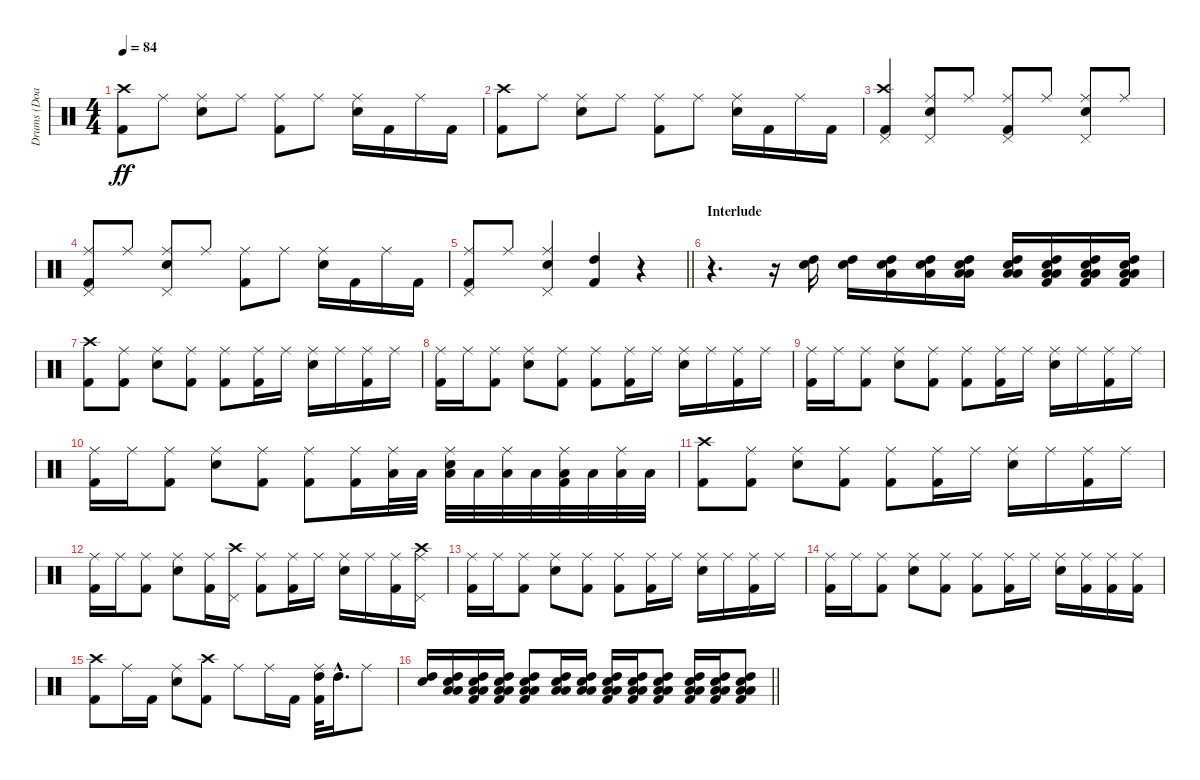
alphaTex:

\track ("Drums (Doane Perry)" "Drums (Doa") {instrument percussion}
\staff {score}
\articulation defaults
\ts (4 4)
\tempo 84
\clef neutral
\ks c
("Kick (hit) 2" "Crash high (hit)").8{dy ff} "Ride (middle)".8 ("Snare (hit) 2" "Ride (middle)").8 "Ride (middle)".8 ("Kick (hit) 2" "Ride (middle)").8 "Ride (middle)".8 ("Snare (hit) 2" "Ride (middle)").16 "Kick (hit) 2".16 "Ride (middle)".16 "Kick (hit) 2".16 |
("Kick (hit) 2" "Crash high (hit)").8 "Ride (middle)".8 ("Snare (hit) 2" "Ride (middle)").8 "Ride (middle)".8 ("Kick (hit) 2" "Ride (middle)").8 "Ride (middle)".8 ("Snare (hit) 2" "Ride (middle)").16 "Kick (hit) 2".16 "Ride (middle)".16 "Kick (hit) 2".16 |
("Kick (hit) 2" "Pedal Hi-Hat (hit)" "Crash high (hit)").4 ("Snare (hit) 2" "Pedal Hi-Hat (hit)" "Ride (middle)").8 "Ride (middle)".8 ("Kick (hit) 2" "Pedal Hi-Hat (hit)" "Ride (middle)").8 "Ride (middle)".8 ("Snare (hit) 2" "Pedal Hi-Hat (hit)" "Ride (middle)").8 "Ride (middle)".8 |
("Kick (hit) 2" "Pedal Hi-Hat (hit)" "Ride (middle)").8 "Ride (middle)".8 ("Snare (hit) 2" "Pedal Hi-Hat (hit)" "Ride (middle)").8 "Ride (middle)".8 ("Kick (hit) 2" "Ride (middle)").8 "Ride (middle)".8 ("Snare (hit) 2" "Ride (middle)").16 "Kick (hit) 2".16 "Ride (middle)".16 "Kick (hit) 2".16 |
\barLineRight lightlight
("Kick (hit) 2" "Pedal Hi-Hat (hit)" "Ride (middle)").8 "Ride (middle)".8 ("Snare (hit) 2" "Pedal Hi-Hat (hit)" "Ride (middle)").4 ("Kick (hit) 2" "High Tom (hit)").4 r.4 |
\section ("" "Interlude")
r.4{d} r.16 ("Snare (hit) 2" "High Tom (hit)").16 ("Snare (hit) 2" "High Tom (hit)").16 ("Snare (hit) 2" "Low Tom (hit)" "High Tom (hit)").16 ("Snare (hit) 2" "Low Tom (hit)" "High Tom (hit)").16 ("Snare (hit) 2" "Low Floor Tom (hit)" "Low Tom (hit)" "High Tom (hit)").16 ("Snare (hit) 2" "Low Floor Tom (hit)" "Low Tom (hit)" "High Tom (hit)").16 ("Kick (hit) 2" "Snare (hit) 2" "Low Floor Tom (hit)" "Low Tom (hit)" "High Tom (hit)").16 ("Kick (hit) 2" "Snare (hit) 2" "Low Floor Tom (hit)" "Low Tom (hit)" "High Tom (hit)").16 ("Kick (hit) 2" "Snare (hit) 2" "Low Floor Tom (hit)" "Low Tom (hit)" "High Tom (hit)").16 |
("Kick (hit) 2" "Crash high (hit)").8 ("Kick (hit) 2" "Ride (middle)").8 ("Snare (hit) 2" "Ride (middle)").8 ("Kick (hit) 2" "Ride (middle)").8 ("Kick (hit) 2" "Ride (middle)").8 ("Kick (hit) 2" "Ride (middle)").16 "Ride (middle)".16 ("Snare (hit) 2" "Ride (middle)").16 "Ride (middle)".16 ("Kick (hit) 2" "Ride (middle)").16 "Ride (middle)".16 |
("Kick (hit) 2" "Ride (middle)").16 "Ride (middle)".16 ("Kick (hit) 2" "Ride (middle)").8 ("Snare (hit) 2" "Ride (middle)").8 ("Kick (hit) 2" "Ride (middle)").8 ("Kick (hit) 2" "Ride (middle)").8 ("Kick (hit) 2" "Ride (middle)").16 "Ride (middle)".16 ("Snare (hit) 2" "Ride (middle)").16 "Ride (middle)".16 ("Kick (hit) 2" "Ride (middle)").16 "Ride (middle)".16 |
("Kick (hit) 2" "Ride (middle)").16 "Ride (middle)".16 ("Kick (hit) 2" "Ride (middle)").8 ("Snare (hit) 2" "Ride (middle)").8 ("Kick (hit) 2" "Ride (middle)").8 ("Kick (hit) 2" "Ride (middle)").8 ("Kick (hit) 2" "Ride (middle)").16 "Ride (middle)".16 ("Snare (hit) 2" "Ride (middle)").16 "Ride (middle)".16 ("Kick (hit) 2" "Ride (middle)").16 "Ride (middle)".16 |
("Kick (hit) 2" "Ride (middle)").16 "Ride (middle)".16 ("Kick (hit) 2" "Ride (middle)").8 ("Snare (hit) 2" "Ride (middle)").8 ("Kick (hit) 2" "Ride (middle)").8 ("Kick (hit) 2" "Ride (middle)").8 ("Kick (hit) 2" "Ride (middle)").16 ("Low Floor Tom (hit)" "Ride (middle)").32 "Low Floor Tom (hit)".32 ("Snare (hit) 2" "Low Floor Tom (hit)" "Ride (middle)").32 "Low Floor Tom (hit)".32 ("Low Floor Tom (hit)" "Ride (middle)").32 "Low Floor Tom (hit)".32 ("Kick (hit) 2" "Low Floor Tom (hit)" "Ride (middle)").32 "Low Floor Tom (hit)".32 ("Low Floor Tom (hit)" "Ride (middle)").32 "Low Floor Tom (hit)".32 |
("Kick (hit) 2" "Crash high (hit)").8 ("Kick (hit) 2" "Ride (middle)").8 ("Snare (hit) 2" "Ride (middle)").8 ("Kick (hit) 2" "Ride (middle)").8 ("Kick (hit) 2" "Ride (middle)").8 ("Kick (hit) 2" "Ride (middle)").16 "Ride (middle)".16 ("Snare (hit) 2" "Ride (middle)").16 "Ride (middle)".16 ("Kick (hit) 2" "Ride (middle)").16 "Ride (middle)".16 |
("Kick (hit) 2" "Ride (middle)").16 "Ride (middle)".16 ("Kick (hit) 2" "Ride (middle)").8 ("Snare (hit) 2" "Ride (middle)").8 ("Kick (hit) 2" "Ride (middle)").16 ("Pedal Hi-Hat (hit)" "Crash high (hit)").16 ("Kick (hit) 2" "Ride (middle)").8 ("Kick (hit) 2" "Ride (middle)").16 "Ride (middle)".16 ("Snare (hit) 2" "Ride (middle)").16 "Ride (middle)".16 ("Kick (hit) 2" "Ride (middle)").16 ("Pedal Hi-Hat (hit)" "Crash high (hit)" "Ride (middle)").16 |
("Kick (hit) 2" "Ride (middle)").16 "Ride (middle)".16 ("Kick (hit) 2" "Ride (middle)").8 ("Snare (hit) 2" "Ride (middle)").8 ("Kick (hit) 2" "Ride (middle)").8 ("Kick (hit) 2" "Ride (middle)").8 ("Kick (hit) 2" "Ride (middle)").16 "Ride (middle)".16 ("Snare (hit) 2" "Ride (middle)").16 "Ride (middle)".16 ("Kick (hit) 2" "Ride (middle)").16 "Ride (middle)".16 |
("Kick (hit) 2" "Ride (middle)").16 "Ride (middle)".16 ("Kick (hit) 2" "Ride (middle)").8 ("Snare (hit) 2" "Ride (middle)").8 ("Kick (hit) 2" "Ride (middle)").8 ("Kick (hit) 2" "Ride (middle)").8 ("Kick (hit) 2" "Ride (middle)").16 "Ride (middle)".16 ("Snare (hit) 2" "Ride (middle)").16 ("Kick (hit) 2" "Ride (middle)").16 ("Kick (hit) 2" "Ride (middle)").16 ("Kick (hit) 2" "Ride (middle)").16 |
("Kick (hit) 2" "Crash high (hit)").8 "Ride (middle)".16 "Kick (hit) 2".16 ("Snare (hit) 2" "Ride (middle)").8 ("Kick (hit) 2" "Crash high (hit)").8 "Ride (middle)".8 "Ride (middle)".16 "Kick (hit) 2".16 ("Kick (hit) 2" "High Tom (hit)" "Ride (middle)").32 "High Tom (hit)"{hac}.16{d} "Ride (middle)".8 |
\barLineRight lightlight
("Snare (hit) 2" "High Tom (hit)").16 ("Snare (hit) 2" "Low Floor Tom (hit)" "Low Tom (hit)" "High Tom (hit)").16 ("Kick (hit) 2" "Snare (hit) 2" "Low Floor Tom (hit)" "Low Tom (hit)" "High Tom (hit)").16 ("Kick (hit) 2" "Snare (hit) 2" "Low Floor Tom (hit)" "Low Tom (hit)" "High Tom (hit)").16 ("Kick (hit) 2" "Snare (hit) 2" "Low Floor Tom (hit)" "Low Tom (hit)" "High Tom (hit)").8 ("Snare (hit) 2" "Low Floor Tom (hit)" "Low Tom (hit)" "High Tom (hit)").16 ("Snare (hit) 2" "Low Floor Tom (hit)" "Low Tom (hit)" "High Tom (hit)").16 ("Kick (hit) 2" "Snare (hit) 2" "Low Floor Tom (hit)" "Low Tom (hit)" "High Tom (hit)").16 ("Kick (hit) 2" "Snare (hit) 2" "Low Floor Tom (hit)" "Low Tom (hit)" "High Tom (hit)").16 ("Kick (hit) 2" "Snare (hit) 2" "Low Floor Tom (hit)" "Low Tom (hit)" "High Tom (hit)").8 ("Kick (hit) 2" "Snare (hit) 2" "Low Floor Tom (hit)" "Low Tom (hit)" "High Tom (hit)").16 ("Kick (hit) 2" "Snare (hit) 2" "Low Floor Tom (hit)" "Low Tom (hit)" "High Tom (hit)").16 ("Kick (hit) 2" "Snare (hit) 2" "Low Floor Tom (hit)" "Low Tom (hit)" "High Tom (hit)").8
